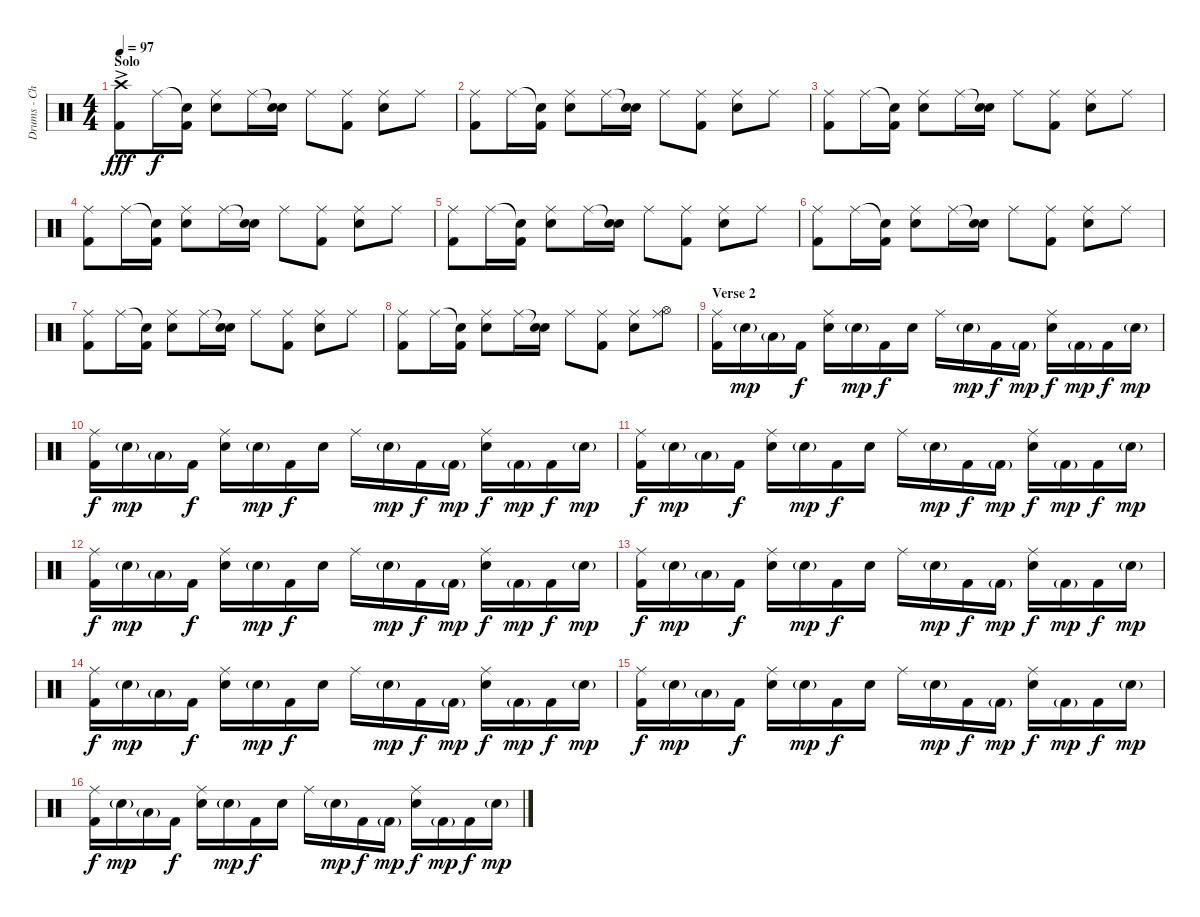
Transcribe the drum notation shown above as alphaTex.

\track ("Drums - Chad S" "Drums - Ch") {instrument percussion}
\staff {score}
\articulation defaults
\ts (4 4)
\section ("" "Solo")
\tempo 97
\clef neutral
\ks c
("Crash high (hit)"{ac} "Kick (hit) 2").8{dy fff} "Ride (middle)".16{dy f} ("Snare (hit)"{t} "Kick (hit) 2").16 ("Ride (middle)" "Snare (hit) 2").8 "Ride (middle)".16 ("Snare (hit)"{t} "Snare (hit) 2").16 "Ride (middle)".8 ("Ride (middle)" "Kick (hit) 2").8 ("Ride (middle)" "Snare (hit) 2").8 "Ride (middle)".8 |
("Ride (middle)" "Kick (hit) 2").8 "Ride (middle)".16 ("Snare (hit)"{t} "Kick (hit) 2").16 ("Ride (middle)" "Snare (hit) 2").8 "Ride (middle)".16 ("Snare (hit)"{t} "Snare (hit) 2").16 "Ride (middle)".8 ("Ride (middle)" "Kick (hit) 2").8 ("Ride (middle)" "Snare (hit) 2").8 "Ride (middle)".8 |
("Ride (middle)" "Kick (hit) 2").8 "Ride (middle)".16 ("Snare (hit)"{t} "Kick (hit) 2").16 ("Ride (middle)" "Snare (hit) 2").8 "Ride (middle)".16 ("Snare (hit)"{t} "Snare (hit) 2").16 "Ride (middle)".8 ("Ride (middle)" "Kick (hit) 2").8 ("Ride (middle)" "Snare (hit) 2").8 "Ride (middle)".8 |
("Ride (middle)" "Kick (hit) 2").8 "Ride (middle)".16 ("Snare (hit)"{t} "Kick (hit) 2").16 ("Ride (middle)" "Snare (hit) 2").8 "Ride (middle)".16 ("Snare (hit)"{t} "Snare (hit) 2").16 "Ride (middle)".8 ("Ride (middle)" "Kick (hit) 2").8 ("Ride (middle)" "Snare (hit) 2").8 "Ride (middle)".8 |
("Ride (middle)" "Kick (hit) 2").8 "Ride (middle)".16 ("Snare (hit)"{t} "Kick (hit) 2").16 ("Ride (middle)" "Snare (hit) 2").8 "Ride (middle)".16 ("Snare (hit)"{t} "Snare (hit) 2").16 "Ride (middle)".8 ("Ride (middle)" "Kick (hit) 2").8 ("Ride (middle)" "Snare (hit) 2").8 "Ride (middle)".8 |
("Ride (middle)" "Kick (hit) 2").8 "Ride (middle)".16 ("Snare (hit)"{t} "Kick (hit) 2").16 ("Ride (middle)" "Snare (hit) 2").8 "Ride (middle)".16 ("Snare (hit)"{t} "Snare (hit) 2").16 "Ride (middle)".8 ("Ride (middle)" "Kick (hit) 2").8 ("Ride (middle)" "Snare (hit) 2").8 "Ride (middle)".8 |
("Ride (middle)" "Kick (hit) 2").8 "Ride (middle)".16 ("Snare (hit)"{t} "Kick (hit) 2").16 ("Ride (middle)" "Snare (hit) 2").8 "Ride (middle)".16 ("Snare (hit)"{t} "Snare (hit) 2").16 "Ride (middle)".8 ("Ride (middle)" "Kick (hit) 2").8 ("Ride (middle)" "Snare (hit) 2").8 "Ride (middle)".8 |
("Ride (middle)" "Kick (hit) 2").8 "Ride (middle)".16 ("Snare (hit)"{t} "Kick (hit) 2").16 ("Ride (middle)" "Snare (hit) 2").8 "Ride (middle)".16 ("Snare (hit)"{t} "Snare (hit) 2").16 "Ride (middle)".8 ("Ride (middle)" "Kick (hit) 2").8 ("Ride (middle)" "Snare (hit) 2").8 ("Ride (middle)" "Hi-Hat (open)").8 |
\section ("" "Verse 2")
("Ride (middle)" "Kick (hit) 2").16 "Snare (hit) 2"{g}.16{dy mp} "Low Floor Tom (hit)"{g}.16 "Kick (hit) 2".16{dy f} ("Ride (middle)" "Snare (hit) 2").16 "Snare (hit) 2"{g}.16{dy mp} "Kick (hit) 2".16{dy f} "Snare (hit) 2".16 "Ride (middle)".16 "Snare (hit) 2"{g}.16{dy mp} "Kick (hit) 2".16{dy f} "Kick (hit) 2"{g}.16{dy mp} ("Ride (middle)" "Snare (hit) 2").16{dy f} "Kick (hit) 2"{g}.16{dy mp} "Kick (hit) 2".16{dy f} "Snare (hit) 2"{g}.16{dy mp} |
("Ride (middle)" "Kick (hit) 2").16{dy f} "Snare (hit) 2"{g}.16{dy mp} "Low Floor Tom (hit)"{g}.16 "Kick (hit) 2".16{dy f} ("Ride (middle)" "Snare (hit) 2").16 "Snare (hit) 2"{g}.16{dy mp} "Kick (hit) 2".16{dy f} "Snare (hit) 2".16 "Ride (middle)".16 "Snare (hit) 2"{g}.16{dy mp} "Kick (hit) 2".16{dy f} "Kick (hit) 2"{g}.16{dy mp} ("Ride (middle)" "Snare (hit) 2").16{dy f} "Kick (hit) 2"{g}.16{dy mp} "Kick (hit) 2".16{dy f} "Snare (hit) 2"{g}.16{dy mp} |
("Ride (middle)" "Kick (hit) 2").16{dy f} "Snare (hit) 2"{g}.16{dy mp} "Low Floor Tom (hit)"{g}.16 "Kick (hit) 2".16{dy f} ("Ride (middle)" "Snare (hit) 2").16 "Snare (hit) 2"{g}.16{dy mp} "Kick (hit) 2".16{dy f} "Snare (hit) 2".16 "Ride (middle)".16 "Snare (hit) 2"{g}.16{dy mp} "Kick (hit) 2".16{dy f} "Kick (hit) 2"{g}.16{dy mp} ("Ride (middle)" "Snare (hit) 2").16{dy f} "Kick (hit) 2"{g}.16{dy mp} "Kick (hit) 2".16{dy f} "Snare (hit) 2"{g}.16{dy mp} |
("Ride (middle)" "Kick (hit) 2").16{dy f} "Snare (hit) 2"{g}.16{dy mp} "Low Floor Tom (hit)"{g}.16 "Kick (hit) 2".16{dy f} ("Ride (middle)" "Snare (hit) 2").16 "Snare (hit) 2"{g}.16{dy mp} "Kick (hit) 2".16{dy f} "Snare (hit) 2".16 "Ride (middle)".16 "Snare (hit) 2"{g}.16{dy mp} "Kick (hit) 2".16{dy f} "Kick (hit) 2"{g}.16{dy mp} ("Ride (middle)" "Snare (hit) 2").16{dy f} "Kick (hit) 2"{g}.16{dy mp} "Kick (hit) 2".16{dy f} "Snare (hit) 2"{g}.16{dy mp} |
("Ride (middle)" "Kick (hit) 2").16{dy f} "Snare (hit) 2"{g}.16{dy mp} "Low Floor Tom (hit)"{g}.16 "Kick (hit) 2".16{dy f} ("Ride (middle)" "Snare (hit) 2").16 "Snare (hit) 2"{g}.16{dy mp} "Kick (hit) 2".16{dy f} "Snare (hit) 2".16 "Ride (middle)".16 "Snare (hit) 2"{g}.16{dy mp} "Kick (hit) 2".16{dy f} "Kick (hit) 2"{g}.16{dy mp} ("Ride (middle)" "Snare (hit) 2").16{dy f} "Kick (hit) 2"{g}.16{dy mp} "Kick (hit) 2".16{dy f} "Snare (hit) 2"{g}.16{dy mp} |
("Ride (middle)" "Kick (hit) 2").16{dy f} "Snare (hit) 2"{g}.16{dy mp} "Low Floor Tom (hit)"{g}.16 "Kick (hit) 2".16{dy f} ("Ride (middle)" "Snare (hit) 2").16 "Snare (hit) 2"{g}.16{dy mp} "Kick (hit) 2".16{dy f} "Snare (hit) 2".16 "Ride (middle)".16 "Snare (hit) 2"{g}.16{dy mp} "Kick (hit) 2".16{dy f} "Kick (hit) 2"{g}.16{dy mp} ("Ride (middle)" "Snare (hit) 2").16{dy f} "Kick (hit) 2"{g}.16{dy mp} "Kick (hit) 2".16{dy f} "Snare (hit) 2"{g}.16{dy mp} |
("Ride (middle)" "Kick (hit) 2").16{dy f} "Snare (hit) 2"{g}.16{dy mp} "Low Floor Tom (hit)"{g}.16 "Kick (hit) 2".16{dy f} ("Ride (middle)" "Snare (hit) 2").16 "Snare (hit) 2"{g}.16{dy mp} "Kick (hit) 2".16{dy f} "Snare (hit) 2".16 "Ride (middle)".16 "Snare (hit) 2"{g}.16{dy mp} "Kick (hit) 2".16{dy f} "Kick (hit) 2"{g}.16{dy mp} ("Ride (middle)" "Snare (hit) 2").16{dy f} "Kick (hit) 2"{g}.16{dy mp} "Kick (hit) 2".16{dy f} "Snare (hit) 2"{g}.16{dy mp} |
("Ride (middle)" "Kick (hit) 2").16{dy f} "Snare (hit) 2"{g}.16{dy mp} "Low Floor Tom (hit)"{g}.16 "Kick (hit) 2".16{dy f} ("Ride (middle)" "Snare (hit) 2").16 "Snare (hit) 2"{g}.16{dy mp} "Kick (hit) 2".16{dy f} "Snare (hit) 2".16 "Ride (middle)".16 "Snare (hit) 2"{g}.16{dy mp} "Kick (hit) 2".16{dy f} "Kick (hit) 2"{g}.16{dy mp} ("Ride (middle)" "Snare (hit) 2").16{dy f} "Kick (hit) 2"{g}.16{dy mp} "Kick (hit) 2".16{dy f} "Snare (hit) 2"{g}.16{dy mp}
